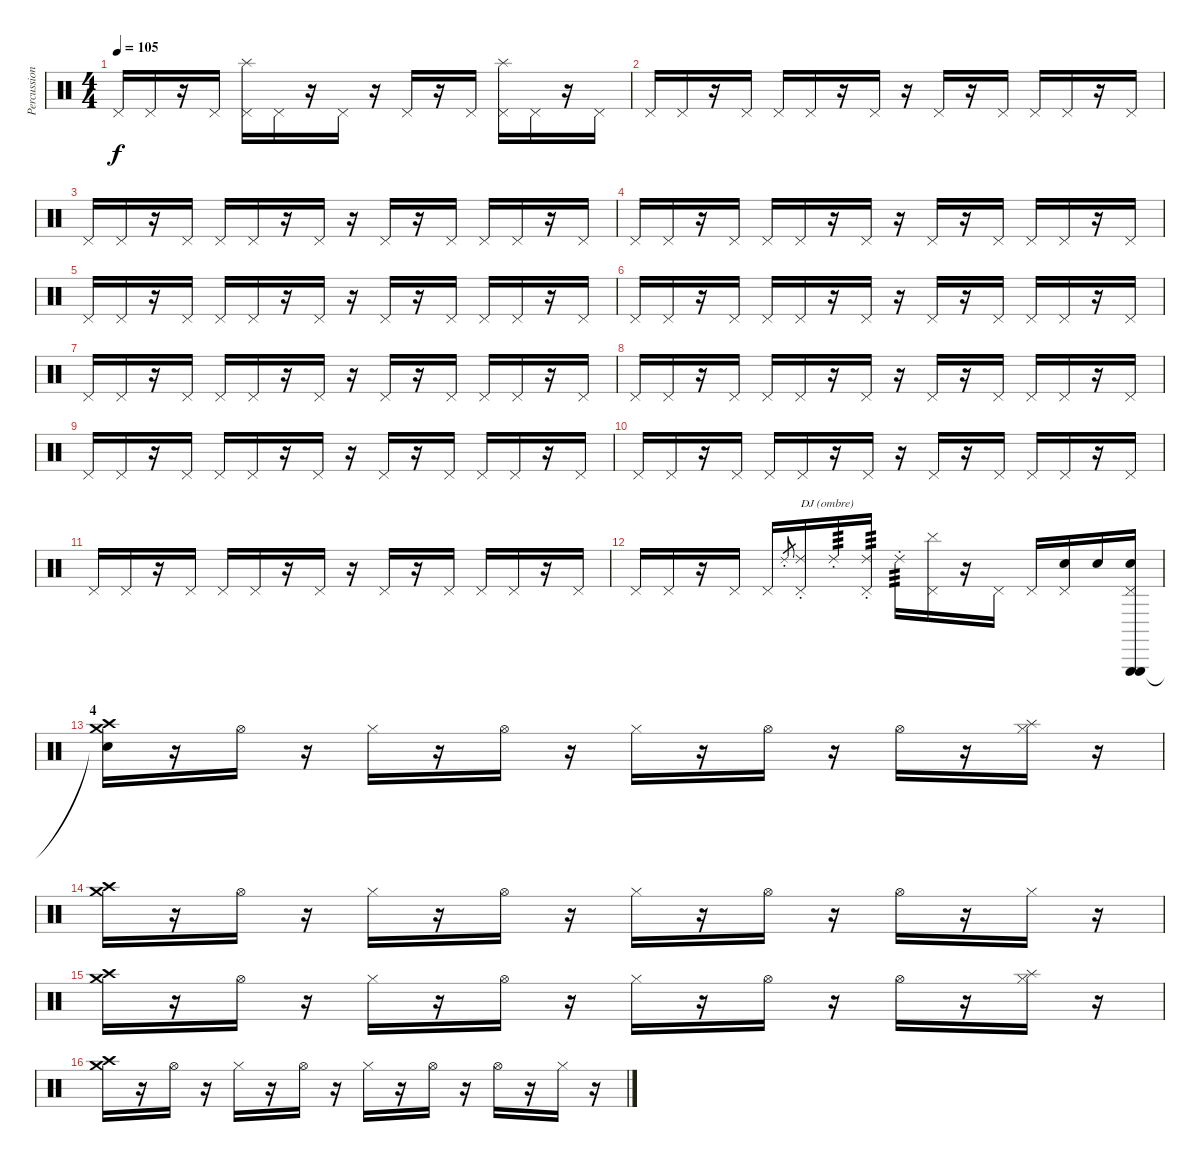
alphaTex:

\track ("Percussions+(scratchs Dj ombre)" "Percussion") {instrument percussion}
\staff {score}
\articulation defaults
\ts (4 4)
\tempo 105
\clef neutral
\ks c "Pedal Hi-Hat (hit)".16{dy f} "Pedal Hi-Hat (hit)".16
r.16 "Pedal Hi-Hat (hit)".16 ("Pedal Hi-Hat (hit)" "Splash (hit)").16{volume 10 balance 16} "Pedal Hi-Hat (hit)".16{volume 10 balance 8} r.16 "Pedal Hi-Hat (hit)".16 r.16 "Pedal Hi-Hat (hit)".16 r.16 "Pedal Hi-Hat (hit)".16 ("Pedal Hi-Hat (hit)" "Splash (hit)").16{balance 0} "Pedal Hi-Hat (hit)".16{balance 8} r.16 "Pedal Hi-Hat (hit)".16 |
"Pedal Hi-Hat (hit)".16 "Pedal Hi-Hat (hit)".16 r.16 "Pedal Hi-Hat (hit)".16 "Pedal Hi-Hat (hit)".16 "Pedal Hi-Hat (hit)".16 r.16 "Pedal Hi-Hat (hit)".16 r.16 "Pedal Hi-Hat (hit)".16 r.16 "Pedal Hi-Hat (hit)".16 "Pedal Hi-Hat (hit)".16 "Pedal Hi-Hat (hit)".16 r.16 "Pedal Hi-Hat (hit)".16 |
"Pedal Hi-Hat (hit)".16 "Pedal Hi-Hat (hit)".16 r.16 "Pedal Hi-Hat (hit)".16 "Pedal Hi-Hat (hit)".16 "Pedal Hi-Hat (hit)".16 r.16 "Pedal Hi-Hat (hit)".16 r.16 "Pedal Hi-Hat (hit)".16 r.16 "Pedal Hi-Hat (hit)".16 "Pedal Hi-Hat (hit)".16 "Pedal Hi-Hat (hit)".16 r.16 "Pedal Hi-Hat (hit)".16 |
"Pedal Hi-Hat (hit)".16 "Pedal Hi-Hat (hit)".16 r.16 "Pedal Hi-Hat (hit)".16 "Pedal Hi-Hat (hit)".16 "Pedal Hi-Hat (hit)".16 r.16 "Pedal Hi-Hat (hit)".16 r.16 "Pedal Hi-Hat (hit)".16 r.16 "Pedal Hi-Hat (hit)".16 "Pedal Hi-Hat (hit)".16 "Pedal Hi-Hat (hit)".16 r.16 "Pedal Hi-Hat (hit)".16 |
"Pedal Hi-Hat (hit)".16 "Pedal Hi-Hat (hit)".16 r.16 "Pedal Hi-Hat (hit)".16 "Pedal Hi-Hat (hit)".16 "Pedal Hi-Hat (hit)".16 r.16 "Pedal Hi-Hat (hit)".16 r.16 "Pedal Hi-Hat (hit)".16 r.16 "Pedal Hi-Hat (hit)".16 "Pedal Hi-Hat (hit)".16 "Pedal Hi-Hat (hit)".16 r.16 "Pedal Hi-Hat (hit)".16 |
"Pedal Hi-Hat (hit)".16 "Pedal Hi-Hat (hit)".16 r.16 "Pedal Hi-Hat (hit)".16 "Pedal Hi-Hat (hit)".16 "Pedal Hi-Hat (hit)".16 r.16 "Pedal Hi-Hat (hit)".16 r.16 "Pedal Hi-Hat (hit)".16 r.16 "Pedal Hi-Hat (hit)".16 "Pedal Hi-Hat (hit)".16 "Pedal Hi-Hat (hit)".16 r.16 "Pedal Hi-Hat (hit)".16 |
"Pedal Hi-Hat (hit)".16 "Pedal Hi-Hat (hit)".16 r.16 "Pedal Hi-Hat (hit)".16 "Pedal Hi-Hat (hit)".16 "Pedal Hi-Hat (hit)".16 r.16 "Pedal Hi-Hat (hit)".16 r.16 "Pedal Hi-Hat (hit)".16 r.16 "Pedal Hi-Hat (hit)".16 "Pedal Hi-Hat (hit)".16 "Pedal Hi-Hat (hit)".16 r.16 "Pedal Hi-Hat (hit)".16 |
"Pedal Hi-Hat (hit)".16 "Pedal Hi-Hat (hit)".16 r.16 "Pedal Hi-Hat (hit)".16 "Pedal Hi-Hat (hit)".16 "Pedal Hi-Hat (hit)".16 r.16 "Pedal Hi-Hat (hit)".16 r.16 "Pedal Hi-Hat (hit)".16 r.16 "Pedal Hi-Hat (hit)".16 "Pedal Hi-Hat (hit)".16 "Pedal Hi-Hat (hit)".16 r.16 "Pedal Hi-Hat (hit)".16 |
"Pedal Hi-Hat (hit)".16 "Pedal Hi-Hat (hit)".16 r.16 "Pedal Hi-Hat (hit)".16 "Pedal Hi-Hat (hit)".16 "Pedal Hi-Hat (hit)".16 r.16 "Pedal Hi-Hat (hit)".16 r.16 "Pedal Hi-Hat (hit)".16 r.16 "Pedal Hi-Hat (hit)".16 "Pedal Hi-Hat (hit)".16 "Pedal Hi-Hat (hit)".16 r.16 "Pedal Hi-Hat (hit)".16 |
"Pedal Hi-Hat (hit)".16 "Pedal Hi-Hat (hit)".16 r.16 "Pedal Hi-Hat (hit)".16 "Pedal Hi-Hat (hit)".16 "Pedal Hi-Hat (hit)".16 r.16 "Pedal Hi-Hat (hit)".16 r.16 "Pedal Hi-Hat (hit)".16 r.16 "Pedal Hi-Hat (hit)".16 "Pedal Hi-Hat (hit)".16 "Pedal Hi-Hat (hit)".16 r.16 "Pedal Hi-Hat (hit)".16 |
"Pedal Hi-Hat (hit)".16 "Pedal Hi-Hat (hit)".16 r.16 "Pedal Hi-Hat (hit)".16 "Pedal Hi-Hat (hit)".16 "Pedal Hi-Hat (hit)".16 r.16 "Pedal Hi-Hat (hit)".16 r.16 "Pedal Hi-Hat (hit)".16 r.16 "Pedal Hi-Hat (hit)".16 "Pedal Hi-Hat (hit)".16 "Pedal Hi-Hat (hit)".16 r.16 "Pedal Hi-Hat (hit)".16 |
"Pedal Hi-Hat (hit)".16 "Pedal Hi-Hat (hit)".16 r.16 "Pedal Hi-Hat (hit)".16 "Pedal Hi-Hat (hit)".16 "Ride (choke) 2".8{gr} ("Pedal Hi-Hat (hit)" "Ride (choke) 2").16{txt "DJ (ombre)"} "Ride (choke) 2".16{tp 3} ("Pedal Hi-Hat (hit)" "Ride (choke) 2").16{tp 3} "Ride (choke) 2".16{tp 3} ("Pedal Hi-Hat (hit)" "Cymbal (hit)"{tr (29 16)}).16 r.16 "Pedal Hi-Hat (hit)".16 "Pedal Hi-Hat (hit)".16 ("Pedal Hi-Hat (hit)" "Electric Snare (hit)").16 "Snare (hit) 2".16 ("Pedal Hi-Hat (hit)" "Triangle (hit)" "Triangle (hit)" "Electric Snare (hit)").16 |
\section ("" "4")
("Crash high (hit)" "Crash medium (hit)" "Snare (hit)"{t}).16 r.16 "Hi-Hat (open)".16 r.16 "Hi-Hat (closed)".16 r.16 "Hi-Hat (open)".16 r.16 "Hi-Hat (closed)".16 r.16 "Hi-Hat (open)".16 r.16 "Hi-Hat (open)".16 r.16 ("Hi-Hat (closed)" "Splash (hit)").16 r.16 |
("Crash high (hit)" "Crash medium (hit)").16 r.16 "Hi-Hat (open)".16 r.16 "Hi-Hat (closed)".16 r.16 "Hi-Hat (open)".16 r.16 "Hi-Hat (closed)".16 r.16 "Hi-Hat (open)".16 r.16 "Hi-Hat (open)".16 r.16 "Hi-Hat (closed)".16 r.16 |
("Crash high (hit)" "Crash medium (hit)").16 r.16 "Hi-Hat (open)".16 r.16 "Hi-Hat (closed)".16 r.16 "Hi-Hat (open)".16 r.16 "Hi-Hat (closed)".16 r.16 "Hi-Hat (open)".16 r.16 "Hi-Hat (open)".16 r.16 ("Hi-Hat (closed)" "Splash (hit)").16 r.16 |
("Crash high (hit)" "Crash medium (hit)").16 r.16 "Hi-Hat (open)".16 r.16 "Hi-Hat (closed)".16 r.16 "Hi-Hat (open)".16 r.16 "Hi-Hat (closed)".16 r.16 "Hi-Hat (open)".16 r.16 "Hi-Hat (open)".16 r.16 "Hi-Hat (closed)".16 r.16
